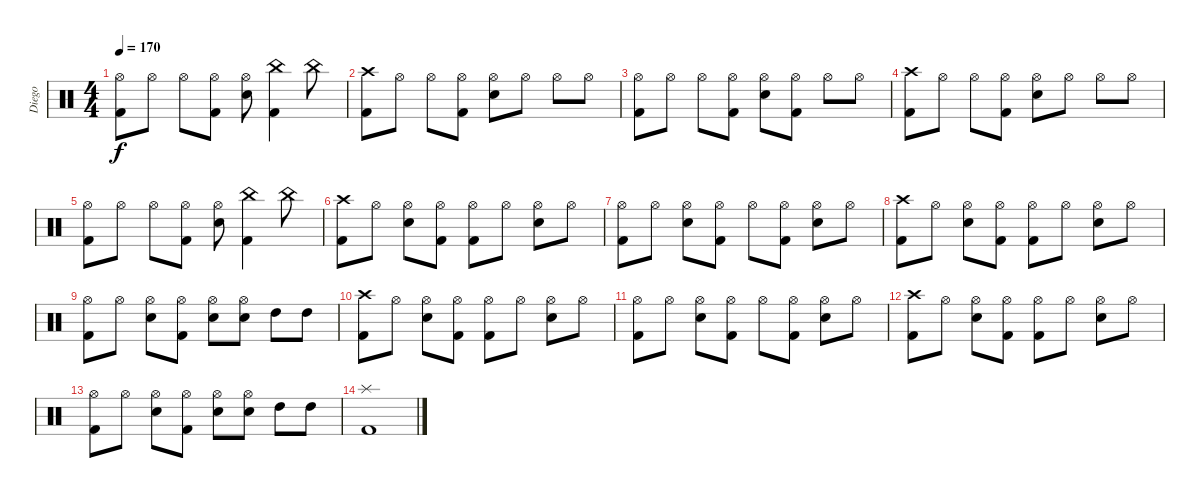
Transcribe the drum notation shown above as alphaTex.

\track ("Diego" "Diego") {instrument percussion}
\staff {score}
\articulation defaults
\ts (4 4)
\tempo 170
\clef neutral
\ks c
("Hi-Hat (open)" "Kick (hit) 2").8{dy f} "Hi-Hat (open)".8 "Hi-Hat (open)".8 ("Hi-Hat (open)" "Kick (hit) 2").8 ("Hi-Hat (open)" "Electric Snare (hit)").8 ("China (hit)" "Kick (hit) 2").4 "China (hit)".8 |
("Crash high (hit)" "Kick (hit) 2").8 "Hi-Hat (open)".8 "Hi-Hat (open)".8 ("Hi-Hat (open)" "Kick (hit) 2").8 ("Hi-Hat (open)" "Electric Snare (hit)").8 "Hi-Hat (open)".8 "Hi-Hat (open)".8 "Hi-Hat (open)".8 |
("Hi-Hat (open)" "Kick (hit) 2").8 "Hi-Hat (open)".8 "Hi-Hat (open)".8 ("Hi-Hat (open)" "Kick (hit) 2").8 ("Hi-Hat (open)" "Electric Snare (hit)").8 ("Hi-Hat (open)" "Kick (hit) 2").8 "Hi-Hat (open)".8 "Hi-Hat (open)".8 |
("Crash high (hit)" "Kick (hit) 2").8 "Hi-Hat (open)".8 "Hi-Hat (open)".8 ("Hi-Hat (open)" "Kick (hit) 2").8 ("Hi-Hat (open)" "Electric Snare (hit)").8 "Hi-Hat (open)".8 "Hi-Hat (open)".8 "Hi-Hat (open)".8 |
("Hi-Hat (open)" "Kick (hit) 2").8 "Hi-Hat (open)".8 "Hi-Hat (open)".8 ("Hi-Hat (open)" "Kick (hit) 2").8 ("Hi-Hat (open)" "Electric Snare (hit)").8 ("China (hit)" "Kick (hit) 2").4 "China (hit)".8 |
("Crash high (hit)" "Kick (hit) 2").8 "Hi-Hat (open)".8 ("Hi-Hat (open)" "Electric Snare (hit)").8 ("Hi-Hat (open)" "Kick (hit) 2").8 ("Hi-Hat (open)" "Kick (hit) 2").8 "Hi-Hat (open)".8 ("Hi-Hat (open)" "Electric Snare (hit)").8 "Hi-Hat (open)".8 |
("Hi-Hat (open)" "Kick (hit) 2").8 "Hi-Hat (open)".8 ("Hi-Hat (open)" "Electric Snare (hit)").8 ("Hi-Hat (open)" "Kick (hit) 2").8 "Hi-Hat (open)".8 ("Hi-Hat (open)" "Kick (hit) 2").8 ("Hi-Hat (open)" "Electric Snare (hit)").8 "Hi-Hat (open)".8 |
("Crash high (hit)" "Kick (hit) 2").8 "Hi-Hat (open)".8 ("Hi-Hat (open)" "Electric Snare (hit)").8 ("Hi-Hat (open)" "Kick (hit) 2").8 ("Hi-Hat (open)" "Kick (hit) 2").8 "Hi-Hat (open)".8 ("Hi-Hat (open)" "Electric Snare (hit)").8 "Hi-Hat (open)".8 |
("Hi-Hat (open)" "Kick (hit) 2").8 "Hi-Hat (open)".8 ("Hi-Hat (open)" "Electric Snare (hit)").8 ("Hi-Hat (open)" "Kick (hit) 2").8 ("Hi-Hat (open)" "Electric Snare (hit)").8 ("Hi-Hat (open)" "Electric Snare (hit)").8 "High Tom (hit)".8 "High Tom (hit)".8 |
("Crash high (hit)" "Kick (hit) 2").8 "Hi-Hat (open)".8 ("Hi-Hat (open)" "Electric Snare (hit)").8 ("Hi-Hat (open)" "Kick (hit) 2").8 ("Hi-Hat (open)" "Kick (hit) 2").8 "Hi-Hat (open)".8 ("Hi-Hat (open)" "Electric Snare (hit)").8 "Hi-Hat (open)".8 |
("Hi-Hat (open)" "Kick (hit) 2").8 "Hi-Hat (open)".8 ("Hi-Hat (open)" "Electric Snare (hit)").8 ("Hi-Hat (open)" "Kick (hit) 2").8 "Hi-Hat (open)".8 ("Hi-Hat (open)" "Kick (hit) 2").8 ("Hi-Hat (open)" "Electric Snare (hit)").8 "Hi-Hat (open)".8 |
("Crash high (hit)" "Kick (hit) 2").8 "Hi-Hat (open)".8 ("Hi-Hat (open)" "Electric Snare (hit)").8 ("Hi-Hat (open)" "Kick (hit) 2").8 ("Hi-Hat (open)" "Kick (hit) 2").8 "Hi-Hat (open)".8 ("Hi-Hat (open)" "Electric Snare (hit)").8 "Hi-Hat (open)".8 |
("Hi-Hat (open)" "Kick (hit) 2").8 "Hi-Hat (open)".8 ("Hi-Hat (open)" "Electric Snare (hit)").8 ("Hi-Hat (open)" "Kick (hit) 2").8 ("Hi-Hat (open)" "Electric Snare (hit)").8 ("Hi-Hat (open)" "Electric Snare (hit)").8 "High Tom (hit)".8 "High Tom (hit)".8 |
("Splash (hit)" "Kick (hit) 2").1
